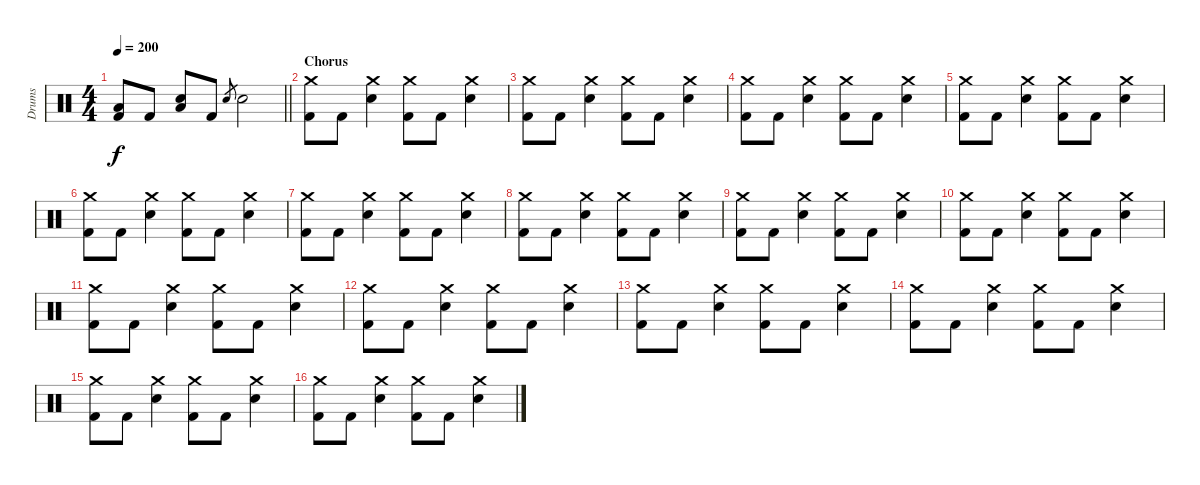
\track ("Drums" "Drums") {instrument percussion}
\staff {score}
\articulation defaults
\ts (4 4)
\tempo 200
\clef neutral
\barLineRight lightlight
\ks c
("Low Floor Tom (hit)" "Kick (hit) 2").8{dy f} "Kick (hit) 2".8 ("Low Floor Tom (hit)" "Electric Snare (hit)").8 "Kick (hit) 2".8 "Electric Snare (hit)".8{gr} "Electric Snare (hit)".2 |
\section ("" "Chorus")
("Crash medium (hit)" "Kick (hit) 2").8 "Kick (hit) 2".8 ("Crash medium (hit)" "Electric Snare (hit)").4 ("Crash medium (hit)" "Kick (hit) 2").8 "Kick (hit) 2".8 ("Crash medium (hit)" "Electric Snare (hit)").4 |
("Crash medium (hit)" "Kick (hit) 2").8 "Kick (hit) 2".8 ("Crash medium (hit)" "Electric Snare (hit)").4 ("Crash medium (hit)" "Kick (hit) 2").8 "Kick (hit) 2".8 ("Crash medium (hit)" "Electric Snare (hit)").4 |
("Crash medium (hit)" "Kick (hit) 2").8 "Kick (hit) 2".8 ("Crash medium (hit)" "Electric Snare (hit)").4 ("Crash medium (hit)" "Kick (hit) 2").8 "Kick (hit) 2".8 ("Crash medium (hit)" "Electric Snare (hit)").4 |
("Crash medium (hit)" "Kick (hit) 2").8 "Kick (hit) 2".8 ("Crash medium (hit)" "Electric Snare (hit)").4 ("Crash medium (hit)" "Kick (hit) 2").8 "Kick (hit) 2".8 ("Crash medium (hit)" "Electric Snare (hit)").4 |
("Crash medium (hit)" "Kick (hit) 2").8 "Kick (hit) 2".8 ("Crash medium (hit)" "Electric Snare (hit)").4 ("Crash medium (hit)" "Kick (hit) 2").8 "Kick (hit) 2".8 ("Crash medium (hit)" "Electric Snare (hit)").4 |
("Crash medium (hit)" "Kick (hit) 2").8 "Kick (hit) 2".8 ("Crash medium (hit)" "Electric Snare (hit)").4 ("Crash medium (hit)" "Kick (hit) 2").8 "Kick (hit) 2".8 ("Crash medium (hit)" "Electric Snare (hit)").4 |
("Crash medium (hit)" "Kick (hit) 2").8 "Kick (hit) 2".8 ("Crash medium (hit)" "Electric Snare (hit)").4 ("Crash medium (hit)" "Kick (hit) 2").8 "Kick (hit) 2".8 ("Crash medium (hit)" "Electric Snare (hit)").4 |
("Crash medium (hit)" "Kick (hit) 2").8 "Kick (hit) 2".8 ("Crash medium (hit)" "Electric Snare (hit)").4 ("Crash medium (hit)" "Kick (hit) 2").8 "Kick (hit) 2".8 ("Crash medium (hit)" "Electric Snare (hit)").4 |
("Crash medium (hit)" "Kick (hit) 2").8 "Kick (hit) 2".8 ("Crash medium (hit)" "Electric Snare (hit)").4 ("Crash medium (hit)" "Kick (hit) 2").8 "Kick (hit) 2".8 ("Crash medium (hit)" "Electric Snare (hit)").4 |
("Crash medium (hit)" "Kick (hit) 2").8 "Kick (hit) 2".8 ("Crash medium (hit)" "Electric Snare (hit)").4 ("Crash medium (hit)" "Kick (hit) 2").8 "Kick (hit) 2".8 ("Crash medium (hit)" "Electric Snare (hit)").4 |
("Crash medium (hit)" "Kick (hit) 2").8 "Kick (hit) 2".8 ("Crash medium (hit)" "Electric Snare (hit)").4 ("Crash medium (hit)" "Kick (hit) 2").8 "Kick (hit) 2".8 ("Crash medium (hit)" "Electric Snare (hit)").4 |
("Crash medium (hit)" "Kick (hit) 2").8 "Kick (hit) 2".8 ("Crash medium (hit)" "Electric Snare (hit)").4 ("Crash medium (hit)" "Kick (hit) 2").8 "Kick (hit) 2".8 ("Crash medium (hit)" "Electric Snare (hit)").4 |
("Crash medium (hit)" "Kick (hit) 2").8 "Kick (hit) 2".8 ("Crash medium (hit)" "Electric Snare (hit)").4 ("Crash medium (hit)" "Kick (hit) 2").8 "Kick (hit) 2".8 ("Crash medium (hit)" "Electric Snare (hit)").4 |
("Crash medium (hit)" "Kick (hit) 2").8 "Kick (hit) 2".8 ("Crash medium (hit)" "Electric Snare (hit)").4 ("Crash medium (hit)" "Kick (hit) 2").8 "Kick (hit) 2".8 ("Crash medium (hit)" "Electric Snare (hit)").4 |
("Crash medium (hit)" "Kick (hit) 2").8 "Kick (hit) 2".8 ("Crash medium (hit)" "Electric Snare (hit)").4 ("Crash medium (hit)" "Kick (hit) 2").8 "Kick (hit) 2".8 ("Crash medium (hit)" "Electric Snare (hit)").4
